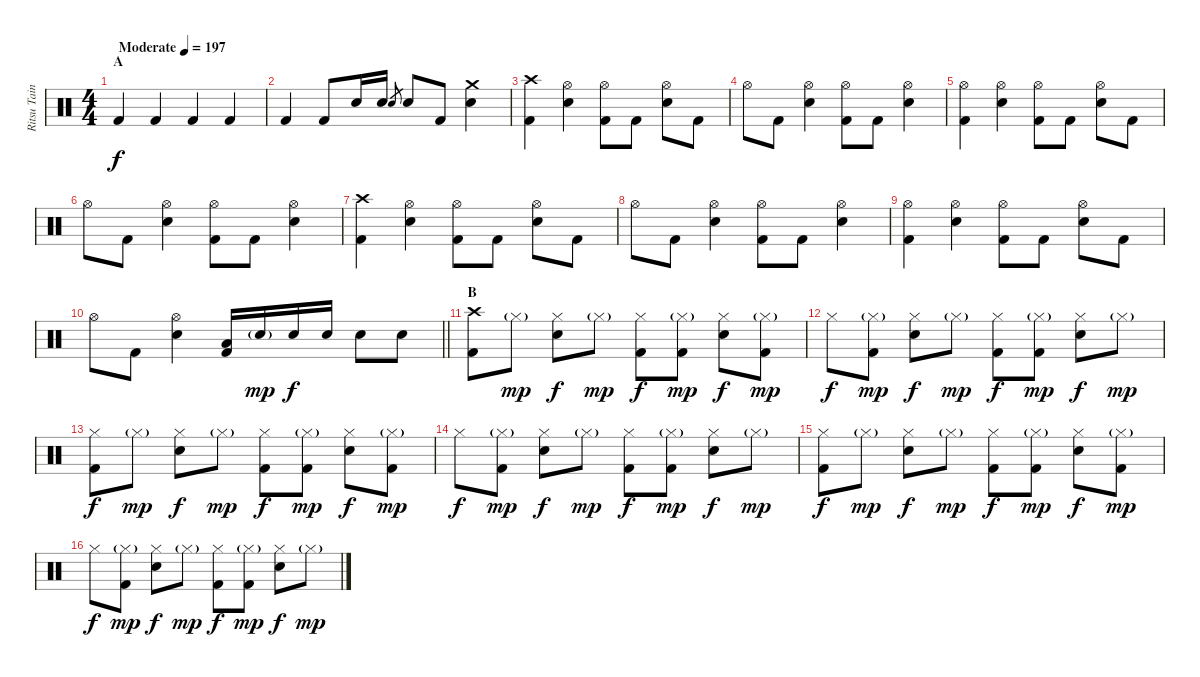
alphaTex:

\track ("Ritsu Tainaka" "Ritsu Tain") {instrument percussion}
\staff {score}
\articulation defaults
\ts (4 4)
\section ("" "A")
\tempo (197 "Moderate")
\clef neutral
\ks c "Kick (hit) 2".4{dy f} "Kick (hit) 2".4 "Kick (hit) 2".4 "Kick (hit) 2".4
|
"Kick (hit) 2".4 "Kick (hit) 2".8 "Electric Snare (hit)".16 "Electric Snare (hit)".16 "Electric Snare (hit)".8{gr} "Electric Snare (hit)".8 "Kick (hit) 2".8 ("Crash medium (hit)" "Electric Snare (hit)").4 |
("Crash high (hit)" "Kick (hit) 2").4 ("Hi-Hat (open)" "Electric Snare (hit)").4 ("Hi-Hat (open)" "Kick (hit) 2").8 "Kick (hit) 2".8 ("Hi-Hat (open)" "Electric Snare (hit)").8 "Kick (hit) 2".8 |
"Hi-Hat (open)".8 "Kick (hit) 2".8 ("Hi-Hat (open)" "Electric Snare (hit)").4 ("Hi-Hat (open)" "Kick (hit) 2").8 "Kick (hit) 2".8 ("Hi-Hat (open)" "Electric Snare (hit)").4 |
("Hi-Hat (open)" "Kick (hit) 2").4 ("Hi-Hat (open)" "Electric Snare (hit)").4 ("Hi-Hat (open)" "Kick (hit) 2").8 "Kick (hit) 2".8 ("Hi-Hat (open)" "Electric Snare (hit)").8 "Kick (hit) 2".8 |
"Hi-Hat (open)".8 "Kick (hit) 2".8 ("Hi-Hat (open)" "Electric Snare (hit)").4 ("Hi-Hat (open)" "Kick (hit) 2").8 "Kick (hit) 2".8 ("Hi-Hat (open)" "Electric Snare (hit)").4 |
("Crash high (hit)" "Kick (hit) 2").4 ("Hi-Hat (open)" "Electric Snare (hit)").4 ("Hi-Hat (open)" "Kick (hit) 2").8 "Kick (hit) 2".8 ("Hi-Hat (open)" "Electric Snare (hit)").8 "Kick (hit) 2".8 |
"Hi-Hat (open)".8 "Kick (hit) 2".8 ("Hi-Hat (open)" "Electric Snare (hit)").4 ("Hi-Hat (open)" "Kick (hit) 2").8 "Kick (hit) 2".8 ("Hi-Hat (open)" "Electric Snare (hit)").4 |
("Hi-Hat (open)" "Kick (hit) 2").4 ("Hi-Hat (open)" "Electric Snare (hit)").4 ("Hi-Hat (open)" "Kick (hit) 2").8 "Kick (hit) 2".8 ("Hi-Hat (open)" "Electric Snare (hit)").8 "Kick (hit) 2".8 |
\barLineRight lightlight "Hi-Hat (open)".8 "Kick (hit) 2".8
("Hi-Hat (open)" "Electric Snare (hit)").4 ("Low Tom (hit)" "Kick (hit) 2").16 "Electric Snare (hit)"{g}.16{dy mp} "Electric Snare (hit)".16{dy f} "Electric Snare (hit)".16 "Electric Snare (hit)".8 "Electric Snare (hit)".8 |
\section ("" "B")
("Crash high (hit)" "Kick (hit) 2").8 "Hi-Hat (closed)"{g}.8{dy mp} ("Hi-Hat (closed)" "Electric Snare (hit)").8{dy f} "Hi-Hat (closed)"{g}.8{dy mp} ("Hi-Hat (closed)" "Kick (hit) 2").8{dy f} ("Hi-Hat (closed)"{g} "Kick (hit) 2").8{dy mp} ("Hi-Hat (closed)" "Electric Snare (hit)").8{dy f} ("Hi-Hat (closed)"{g} "Kick (hit) 2").8{dy mp} |
"Hi-Hat (closed)".8{dy f} ("Hi-Hat (closed)"{g} "Kick (hit) 2").8{dy mp} ("Hi-Hat (closed)" "Electric Snare (hit)").8{dy f} "Hi-Hat (closed)"{g}.8{dy mp} ("Hi-Hat (closed)" "Kick (hit) 2").8{dy f} ("Hi-Hat (closed)"{g} "Kick (hit) 2").8{dy mp} ("Hi-Hat (closed)" "Electric Snare (hit)").8{dy f} "Hi-Hat (closed)"{g}.8{dy mp} |
("Hi-Hat (closed)" "Kick (hit) 2").8{dy f} "Hi-Hat (closed)"{g}.8{dy mp} ("Hi-Hat (closed)" "Electric Snare (hit)").8{dy f} "Hi-Hat (closed)"{g}.8{dy mp} ("Hi-Hat (closed)" "Kick (hit) 2").8{dy f} ("Hi-Hat (closed)"{g} "Kick (hit) 2").8{dy mp} ("Hi-Hat (closed)" "Electric Snare (hit)").8{dy f} ("Hi-Hat (closed)"{g} "Kick (hit) 2").8{dy mp} |
"Hi-Hat (closed)".8{dy f} ("Hi-Hat (closed)"{g} "Kick (hit) 2").8{dy mp} ("Hi-Hat (closed)" "Electric Snare (hit)").8{dy f} "Hi-Hat (closed)"{g}.8{dy mp} ("Hi-Hat (closed)" "Kick (hit) 2").8{dy f} ("Hi-Hat (closed)"{g} "Kick (hit) 2").8{dy mp} ("Hi-Hat (closed)" "Electric Snare (hit)").8{dy f} "Hi-Hat (closed)"{g}.8{dy mp} |
("Hi-Hat (closed)" "Kick (hit) 2").8{dy f} "Hi-Hat (closed)"{g}.8{dy mp} ("Hi-Hat (closed)" "Electric Snare (hit)").8{dy f} "Hi-Hat (closed)"{g}.8{dy mp} ("Hi-Hat (closed)" "Kick (hit) 2").8{dy f} ("Hi-Hat (closed)"{g} "Kick (hit) 2").8{dy mp} ("Hi-Hat (closed)" "Electric Snare (hit)").8{dy f} ("Hi-Hat (closed)"{g} "Kick (hit) 2").8{dy mp} |
"Hi-Hat (closed)".8{dy f} ("Hi-Hat (closed)"{g} "Kick (hit) 2").8{dy mp} ("Hi-Hat (closed)" "Electric Snare (hit)").8{dy f} "Hi-Hat (closed)"{g}.8{dy mp} ("Hi-Hat (closed)" "Kick (hit) 2").8{dy f} ("Hi-Hat (closed)"{g} "Kick (hit) 2").8{dy mp} ("Hi-Hat (closed)" "Electric Snare (hit)").8{dy f} "Hi-Hat (closed)"{g}.8{dy mp}
